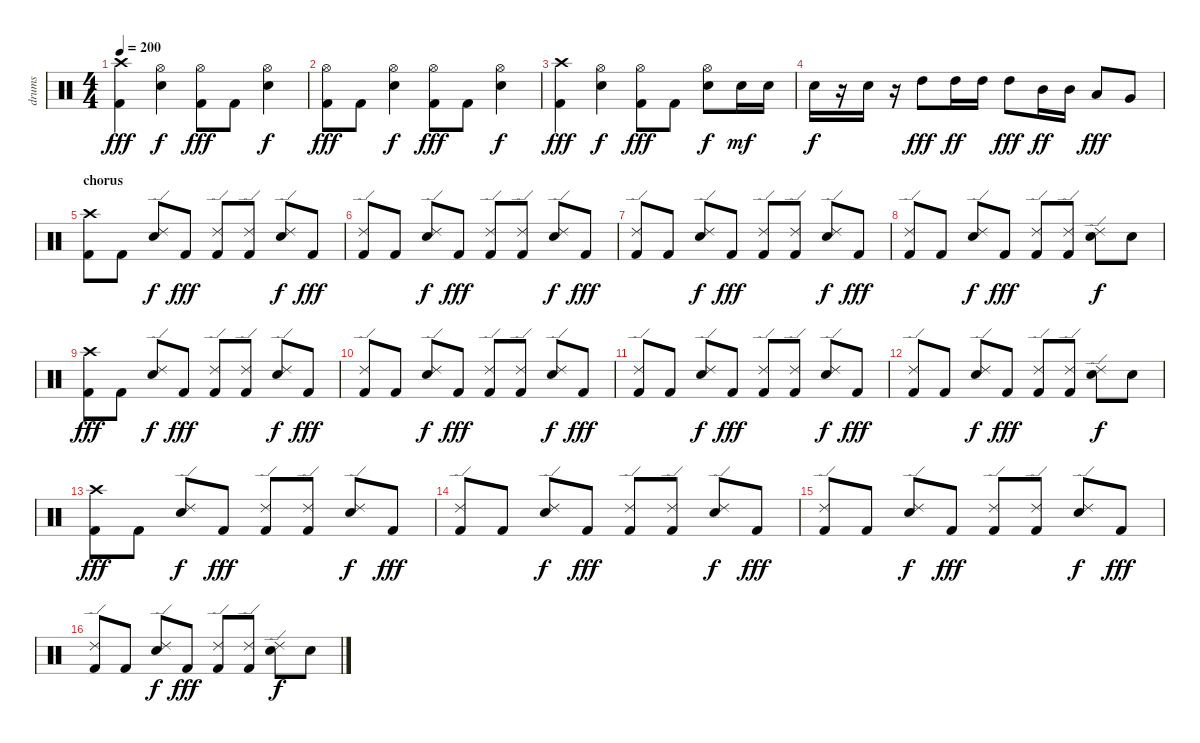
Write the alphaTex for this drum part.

\track ("drums" "drums") {instrument percussion}
\staff {score}
\articulation defaults
\ts (4 4)
\tempo 200
\clef neutral
\ks c
("Crash high (hit)" "Kick (hit) 2").4{dy fff} ("Hi-Hat (open)" "Snare (hit) 2").4{dy f} ("Hi-Hat (open)" "Kick (hit) 2").8{dy fff} "Kick (hit) 2".8 ("Hi-Hat (open)" "Snare (hit) 2").4{dy f} |
("Hi-Hat (open)" "Kick (hit) 2").8{dy fff} "Kick (hit) 2".8 ("Hi-Hat (open)" "Snare (hit) 2").4{dy f} ("Hi-Hat (open)" "Kick (hit) 2").8{dy fff} "Kick (hit) 2".8 ("Hi-Hat (open)" "Snare (hit) 2").4{dy f} |
("Crash high (hit)" "Kick (hit) 2").4{dy fff} ("Hi-Hat (open)" "Snare (hit) 2").4{dy f} ("Hi-Hat (open)" "Kick (hit) 2").8{dy fff} "Kick (hit) 2".8 ("Hi-Hat (open)" "Snare (hit) 2").8{dy f} "Snare (hit) 2".16{dy mf} "Snare (hit) 2".16 |
"Snare (hit) 2".16{dy f} r.16 "Snare (hit) 2".16 r.16 "High Tom (hit)".8{dy fff} "High Tom (hit)".16{dy ff} "High Tom (hit)".16 "High Tom (hit)".8{dy fff} "Mid Tom (hit)".16{dy ff} "Mid Tom (hit)".16 "Low Tom (hit)".8{dy fff} "Very Low Tom (hit)".8 |
\section ("" "chorus")
("Crash high (hit)" "Kick (hit) 2").8 "Kick (hit) 2".8 ("Ride (edge) 2" "Snare (hit) 2").8{dy f} "Kick (hit) 2".8{dy fff} ("Ride (edge) 2" "Kick (hit) 2").8 ("Ride (edge) 2" "Kick (hit) 2").8 ("Ride (edge) 2" "Snare (hit) 2").8{dy f} "Kick (hit) 2".8{dy fff} |
("Ride (edge) 2" "Kick (hit) 2").8 "Kick (hit) 2".8 ("Ride (edge) 2" "Snare (hit) 2").8{dy f} "Kick (hit) 2".8{dy fff} ("Ride (edge) 2" "Kick (hit) 2").8 ("Ride (edge) 2" "Kick (hit) 2").8 ("Ride (edge) 2" "Snare (hit) 2").8{dy f} "Kick (hit) 2".8{dy fff} |
("Ride (edge) 2" "Kick (hit) 2").8 "Kick (hit) 2".8 ("Ride (edge) 2" "Snare (hit) 2").8{dy f} "Kick (hit) 2".8{dy fff} ("Ride (edge) 2" "Kick (hit) 2").8 ("Ride (edge) 2" "Kick (hit) 2").8 ("Ride (edge) 2" "Snare (hit) 2").8{dy f} "Kick (hit) 2".8{dy fff} |
("Ride (edge) 2" "Kick (hit) 2").8 "Kick (hit) 2".8 ("Ride (edge) 2" "Snare (hit) 2").8{dy f} "Kick (hit) 2".8{dy fff} ("Ride (edge) 2" "Kick (hit) 2").8 ("Ride (edge) 2" "Kick (hit) 2").8 ("Ride (edge) 2" "Snare (hit) 2").8{dy f} "Snare (hit) 2".8 |
("Crash high (hit)" "Kick (hit) 2").8{dy fff} "Kick (hit) 2".8 ("Ride (edge) 2" "Snare (hit) 2").8{dy f} "Kick (hit) 2".8{dy fff} ("Ride (edge) 2" "Kick (hit) 2").8 ("Ride (edge) 2" "Kick (hit) 2").8 ("Ride (edge) 2" "Snare (hit) 2").8{dy f} "Kick (hit) 2".8{dy fff} |
("Ride (edge) 2" "Kick (hit) 2").8 "Kick (hit) 2".8 ("Ride (edge) 2" "Snare (hit) 2").8{dy f} "Kick (hit) 2".8{dy fff} ("Ride (edge) 2" "Kick (hit) 2").8 ("Ride (edge) 2" "Kick (hit) 2").8 ("Ride (edge) 2" "Snare (hit) 2").8{dy f} "Kick (hit) 2".8{dy fff} |
("Ride (edge) 2" "Kick (hit) 2").8 "Kick (hit) 2".8 ("Ride (edge) 2" "Snare (hit) 2").8{dy f} "Kick (hit) 2".8{dy fff} ("Ride (edge) 2" "Kick (hit) 2").8 ("Ride (edge) 2" "Kick (hit) 2").8 ("Ride (edge) 2" "Snare (hit) 2").8{dy f} "Kick (hit) 2".8{dy fff} |
("Ride (edge) 2" "Kick (hit) 2").8 "Kick (hit) 2".8 ("Ride (edge) 2" "Snare (hit) 2").8{dy f} "Kick (hit) 2".8{dy fff} ("Ride (edge) 2" "Kick (hit) 2").8 ("Ride (edge) 2" "Kick (hit) 2").8 ("Ride (edge) 2" "Snare (hit) 2").8{dy f} "Snare (hit) 2".8 |
("Crash high (hit)" "Kick (hit) 2").8{dy fff} "Kick (hit) 2".8 ("Ride (edge) 2" "Snare (hit) 2").8{dy f} "Kick (hit) 2".8{dy fff} ("Ride (edge) 2" "Kick (hit) 2").8 ("Ride (edge) 2" "Kick (hit) 2").8 ("Ride (edge) 2" "Snare (hit) 2").8{dy f} "Kick (hit) 2".8{dy fff} |
("Ride (edge) 2" "Kick (hit) 2").8 "Kick (hit) 2".8 ("Ride (edge) 2" "Snare (hit) 2").8{dy f} "Kick (hit) 2".8{dy fff} ("Ride (edge) 2" "Kick (hit) 2").8 ("Ride (edge) 2" "Kick (hit) 2").8 ("Ride (edge) 2" "Snare (hit) 2").8{dy f} "Kick (hit) 2".8{dy fff} |
("Ride (edge) 2" "Kick (hit) 2").8 "Kick (hit) 2".8 ("Ride (edge) 2" "Snare (hit) 2").8{dy f} "Kick (hit) 2".8{dy fff} ("Ride (edge) 2" "Kick (hit) 2").8 ("Ride (edge) 2" "Kick (hit) 2").8 ("Ride (edge) 2" "Snare (hit) 2").8{dy f} "Kick (hit) 2".8{dy fff} |
("Ride (edge) 2" "Kick (hit) 2").8 "Kick (hit) 2".8 ("Ride (edge) 2" "Snare (hit) 2").8{dy f} "Kick (hit) 2".8{dy fff} ("Ride (edge) 2" "Kick (hit) 2").8 ("Ride (edge) 2" "Kick (hit) 2").8 ("Ride (edge) 2" "Snare (hit) 2").8{dy f} "Snare (hit) 2".8
